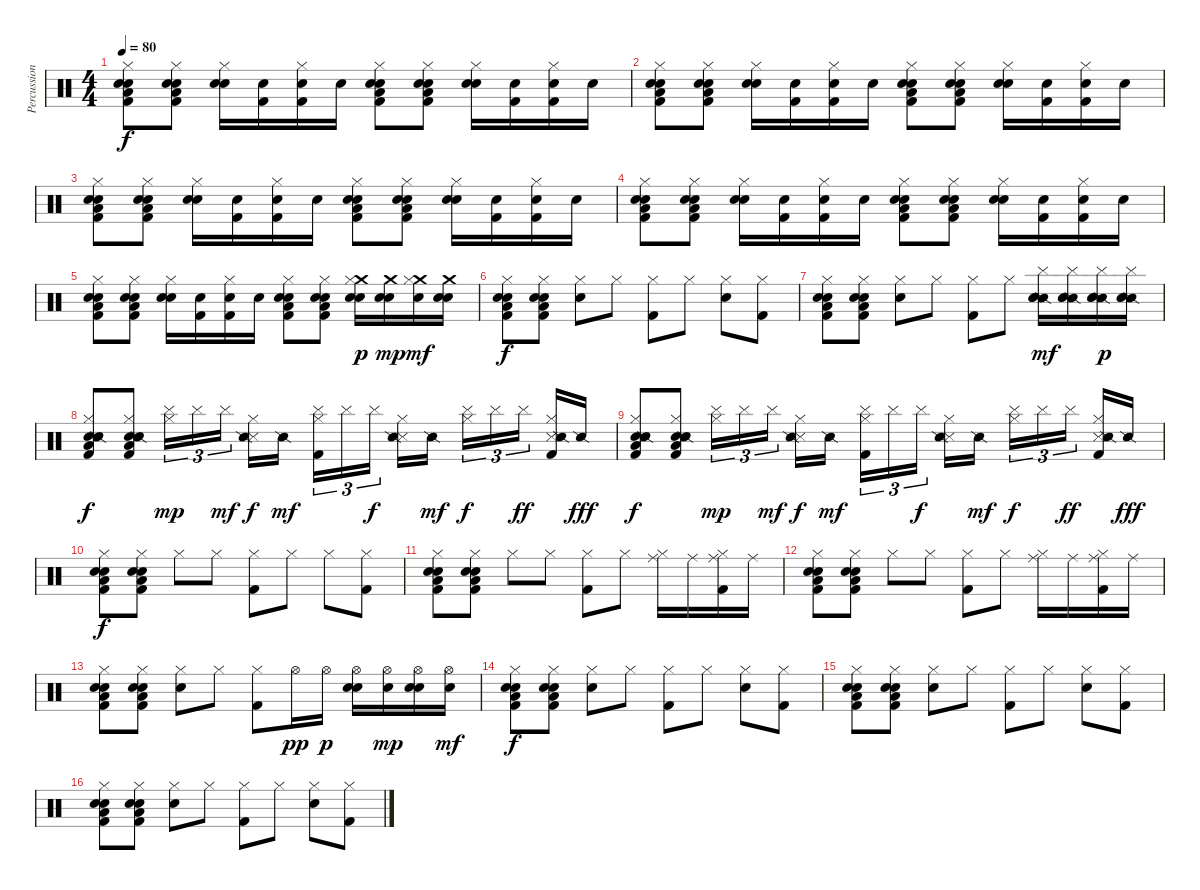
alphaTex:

\track ("Percussion" "Percussion") {instrument percussion}
\staff {score}
\articulation defaults
\ts (4 4)
\tempo 80
\clef neutral
\ks c
("Kick (hit) 2" "Low Floor Tom (hit)" "Electric Snare (hit)" "Hand Clap (hit)" "Hi-Hat (closed)").8{dy f} ("Kick (hit) 2" "Low Floor Tom (hit)" "Electric Snare (hit)" "Hand Clap (hit)" "Hi-Hat (closed)").8 ("Hand Clap (hit)" "Snare (hit) 2" "Hi-Hat (closed)").16 ("Kick (hit) 2" "Hand Clap (hit)").16 ("Kick (hit) 2" "Electric Snare (hit)" "Hi-Hat (closed)").16 "Snare (hit) 2".16 ("Kick (hit) 2" "Low Floor Tom (hit)" "Electric Snare (hit)" "Hand Clap (hit)" "Hi-Hat (closed)").8 ("Kick (hit) 2" "Low Floor Tom (hit)" "Electric Snare (hit)" "Hand Clap (hit)" "Hi-Hat (closed)").8 ("Hand Clap (hit)" "Snare (hit) 2" "Hi-Hat (closed)").16 ("Kick (hit) 2" "Hand Clap (hit)").16 ("Kick (hit) 2" "Electric Snare (hit)" "Hi-Hat (closed)").16 "Snare (hit) 2".16 |
("Kick (hit) 2" "Low Floor Tom (hit)" "Electric Snare (hit)" "Hand Clap (hit)" "Hi-Hat (closed)").8 ("Kick (hit) 2" "Low Floor Tom (hit)" "Electric Snare (hit)" "Hand Clap (hit)" "Hi-Hat (closed)").8 ("Hand Clap (hit)" "Snare (hit) 2" "Hi-Hat (closed)").16 ("Kick (hit) 2" "Hand Clap (hit)").16 ("Kick (hit) 2" "Electric Snare (hit)" "Hi-Hat (closed)").16 "Snare (hit) 2".16 ("Kick (hit) 2" "Low Floor Tom (hit)" "Electric Snare (hit)" "Hand Clap (hit)" "Hi-Hat (closed)").8 ("Kick (hit) 2" "Low Floor Tom (hit)" "Electric Snare (hit)" "Hand Clap (hit)" "Hi-Hat (closed)").8 ("Hand Clap (hit)" "Snare (hit) 2" "Hi-Hat (closed)").16 ("Kick (hit) 2" "Hand Clap (hit)").16 ("Kick (hit) 2" "Electric Snare (hit)" "Hi-Hat (closed)").16 "Snare (hit) 2".16 |
("Kick (hit) 2" "Low Floor Tom (hit)" "Electric Snare (hit)" "Hand Clap (hit)" "Hi-Hat (closed)").8 ("Kick (hit) 2" "Low Floor Tom (hit)" "Electric Snare (hit)" "Hand Clap (hit)" "Hi-Hat (closed)").8 ("Hand Clap (hit)" "Snare (hit) 2" "Hi-Hat (closed)").16 ("Kick (hit) 2" "Hand Clap (hit)").16 ("Kick (hit) 2" "Electric Snare (hit)" "Hi-Hat (closed)").16 "Snare (hit) 2".16 ("Kick (hit) 2" "Low Floor Tom (hit)" "Electric Snare (hit)" "Hand Clap (hit)" "Hi-Hat (closed)").8 ("Kick (hit) 2" "Low Floor Tom (hit)" "Electric Snare (hit)" "Hand Clap (hit)" "Hi-Hat (closed)").8 ("Hand Clap (hit)" "Snare (hit) 2" "Hi-Hat (closed)").16 ("Kick (hit) 2" "Hand Clap (hit)").16 ("Kick (hit) 2" "Electric Snare (hit)" "Hi-Hat (closed)").16 "Snare (hit) 2".16 |
("Kick (hit) 2" "Low Floor Tom (hit)" "Electric Snare (hit)" "Hand Clap (hit)" "Hi-Hat (closed)").8 ("Kick (hit) 2" "Low Floor Tom (hit)" "Electric Snare (hit)" "Hand Clap (hit)" "Hi-Hat (closed)").8 ("Hand Clap (hit)" "Snare (hit) 2" "Hi-Hat (closed)").16 ("Kick (hit) 2" "Hand Clap (hit)").16 ("Kick (hit) 2" "Electric Snare (hit)" "Hi-Hat (closed)").16 "Snare (hit) 2".16 ("Kick (hit) 2" "Low Floor Tom (hit)" "Electric Snare (hit)" "Hand Clap (hit)" "Hi-Hat (closed)").8 ("Kick (hit) 2" "Low Floor Tom (hit)" "Electric Snare (hit)" "Hand Clap (hit)" "Hi-Hat (closed)").8 ("Hand Clap (hit)" "Snare (hit) 2" "Hi-Hat (closed)").16 ("Kick (hit) 2" "Hand Clap (hit)").16 ("Kick (hit) 2" "Electric Snare (hit)" "Hi-Hat (closed)").16 "Snare (hit) 2".16 |
("Kick (hit) 2" "Low Floor Tom (hit)" "Electric Snare (hit)" "Hand Clap (hit)" "Hi-Hat (closed)").8 ("Kick (hit) 2" "Low Floor Tom (hit)" "Electric Snare (hit)" "Hand Clap (hit)" "Hi-Hat (closed)").8 ("Hand Clap (hit)" "Snare (hit) 2" "Hi-Hat (closed)").16 ("Kick (hit) 2" "Hand Clap (hit)").16 ("Kick (hit) 2" "Electric Snare (hit)" "Hi-Hat (closed)").16 "Snare (hit) 2".16 ("Kick (hit) 2" "Low Floor Tom (hit)" "Electric Snare (hit)" "Hand Clap (hit)" "Hi-Hat (closed)").8 ("Kick (hit) 2" "Low Floor Tom (hit)" "Electric Snare (hit)" "Hand Clap (hit)" "Hi-Hat (closed)").8 ("Hand Clap (hit)" "Snare (hit) 2" "Crash medium (hit)" "Hi-Hat (closed)").16{dy p} ("Hand Clap (hit)" "Electric Snare (hit)" "Crash medium (hit)").16{dy mp} ("Snare (hit) 2" "Crash medium (hit)" "Hi-Hat (closed)").16{dy mf} ("Snare (hit) 2" "Electric Snare (hit)" "Crash medium (hit)").16 |
("Kick (hit) 2" "Low Floor Tom (hit)" "Electric Snare (hit)" "Hand Clap (hit)" "Hi-Hat (closed)").8{dy f} ("Kick (hit) 2" "Low Floor Tom (hit)" "Electric Snare (hit)" "Hand Clap (hit)" "Hi-Hat (closed)").8 ("Hand Clap (hit)" "Hi-Hat (closed)").8 "Hi-Hat (closed)".8 ("Kick (hit) 2" "Hi-Hat (closed)").8 "Hi-Hat (closed)".8 ("Hand Clap (hit)" "Hi-Hat (closed)").8 ("Kick (hit) 2" "Hi-Hat (closed)").8 |
("Kick (hit) 2" "Low Floor Tom (hit)" "Electric Snare (hit)" "Hand Clap (hit)" "Hi-Hat (closed)").8 ("Kick (hit) 2" "Low Floor Tom (hit)" "Electric Snare (hit)" "Hand Clap (hit)" "Hi-Hat (closed)").8 ("Hand Clap (hit)" "Hi-Hat (closed)").8 "Hi-Hat (closed)".8 ("Kick (hit) 2" "Hi-Hat (closed)").8 "Hi-Hat (closed)".8 ("Snare (side stick) 2" "Cymbal (hit)" "Electric Snare (hit)" "Hand Clap (hit)").16{dy mf} ("Snare (side stick) 2" "Cymbal (hit)" "Electric Snare (hit)" "Hand Clap (hit)").16 ("Snare (side stick) 2" "Cymbal (hit)" "Electric Snare (hit)" "Hand Clap (hit)").16{dy p} ("Snare (side stick) 2" "Cymbal (hit)" "Electric Snare (hit)" "Hand Clap (hit)").16 |
("Kick (hit) 2" "Low Floor Tom (hit)" "Electric Snare (hit)" "Hand Clap (hit)" "Hi-Hat (closed)" "Snare (side stick) 2").8{dy f} ("Kick (hit) 2" "Low Floor Tom (hit)" "Electric Snare (hit)" "Hand Clap (hit)" "Hi-Hat (closed)" "Snare (side stick) 2").8 ("Hi-Hat (closed)" "Cymbal (hit)").16{tu (3 2) dy mp} "Cymbal (hit)".16{tu (3 2)} "Cymbal (hit)".16{tu (3 2) dy mf} ("Metronome (hit)" "Hi-Hat (closed)" "Snare (side stick) 2").16{dy f} "Snare (side stick) 2".16{dy mf} ("Kick (hit) 2" "Hi-Hat (closed)" "Cymbal (hit)").16{tu (3 2)} "Cymbal (hit)".16{tu (3 2)} "Cymbal (hit)".16{tu (3 2) dy f} ("Metronome (hit)" "Hi-Hat (closed)" "Snare (side stick) 2").16 "Snare (side stick) 2".16{dy mf} ("Hi-Hat (closed)" "Cymbal (hit)").16{tu (3 2) dy f} "Cymbal (hit)".16{tu (3 2)} "Cymbal (hit)".16{tu (3 2) dy ff} ("Kick (hit) 2" "Metronome (hit)" "Hi-Hat (closed)" "Snare (side stick) 2").16 "Snare (side stick) 2".16{dy fff} |
("Kick (hit) 2" "Low Floor Tom (hit)" "Electric Snare (hit)" "Hand Clap (hit)" "Hi-Hat (closed)" "Snare (side stick) 2").8{dy f} ("Kick (hit) 2" "Low Floor Tom (hit)" "Electric Snare (hit)" "Hand Clap (hit)" "Hi-Hat (closed)" "Snare (side stick) 2").8 ("Hi-Hat (closed)" "Cymbal (hit)").16{tu (3 2) dy mp} "Cymbal (hit)".16{tu (3 2)} "Cymbal (hit)".16{tu (3 2) dy mf} ("Metronome (hit)" "Hi-Hat (closed)" "Snare (side stick) 2").16{dy f} "Snare (side stick) 2".16{dy mf} ("Kick (hit) 2" "Hi-Hat (closed)" "Cymbal (hit)").16{tu (3 2)} "Cymbal (hit)".16{tu (3 2)} "Cymbal (hit)".16{tu (3 2) dy f} ("Metronome (hit)" "Hi-Hat (closed)" "Snare (side stick) 2").16 "Snare (side stick) 2".16{dy mf} ("Hi-Hat (closed)" "Cymbal (hit)").16{tu (3 2) dy f} "Cymbal (hit)".16{tu (3 2)} "Cymbal (hit)".16{tu (3 2) dy ff} ("Kick (hit) 2" "Metronome (hit)" "Hi-Hat (closed)" "Snare (side stick) 2").16 "Snare (side stick) 2".16{dy fff} |
("Kick (hit) 2" "Low Floor Tom (hit)" "Electric Snare (hit)" "Hand Clap (hit)" "Hi-Hat (closed)").8{dy f} ("Kick (hit) 2" "Low Floor Tom (hit)" "Electric Snare (hit)" "Hand Clap (hit)" "Hi-Hat (closed)").8 "Hi-Hat (closed)".8 "Hi-Hat (closed)".8 ("Kick (hit) 2" "Hi-Hat (closed)").8 "Hi-Hat (closed)".8 "Hi-Hat (closed)".8 ("Kick (hit) 2" "Hi-Hat (closed)").8 |
("Kick (hit) 2" "Low Floor Tom (hit)" "Electric Snare (hit)" "Hand Clap (hit)" "Hi-Hat (closed)").8 ("Kick (hit) 2" "Low Floor Tom (hit)" "Electric Snare (hit)" "Hand Clap (hit)" "Hi-Hat (closed)").8 "Hi-Hat (closed)".8 "Hi-Hat (closed)".8 ("Kick (hit) 2" "Hi-Hat (closed)").8 "Hi-Hat (closed)".8 ("Ride (middle)" "Hi-Hat (closed)").16 "Ride (middle)".16 ("Kick (hit) 2" "Ride (middle)" "Hi-Hat (closed)").16 "Ride (middle)".16 |
("Kick (hit) 2" "Low Floor Tom (hit)" "Electric Snare (hit)" "Hand Clap (hit)" "Hi-Hat (closed)").8 ("Kick (hit) 2" "Low Floor Tom (hit)" "Electric Snare (hit)" "Hand Clap (hit)" "Hi-Hat (closed)").8 "Hi-Hat (closed)".8 "Hi-Hat (closed)".8 ("Kick (hit) 2" "Hi-Hat (closed)").8 "Hi-Hat (closed)".8 ("Ride (middle)" "Hi-Hat (closed)").16 "Ride (middle)".16 ("Kick (hit) 2" "Ride (middle)" "Hi-Hat (closed)").16 "Ride (middle)".16 |
("Kick (hit) 2" "Low Floor Tom (hit)" "Electric Snare (hit)" "Hand Clap (hit)" "Hi-Hat (closed)").8 ("Kick (hit) 2" "Low Floor Tom (hit)" "Electric Snare (hit)" "Hand Clap (hit)" "Hi-Hat (closed)").8 ("Hand Clap (hit)" "Hi-Hat (closed)").8 "Hi-Hat (closed)".8 ("Kick (hit) 2" "Hi-Hat (closed)").8 "Hi-Hat (open)".16{dy pp} "Hi-Hat (open)".16{dy p} ("Hand Clap (hit)" "Electric Snare (hit)" "Hi-Hat (open)").16 ("Electric Snare (hit)" "Hi-Hat (open)").16{dy mp} ("Hand Clap (hit)" "Electric Snare (hit)" "Hi-Hat (open)").16 ("Electric Snare (hit)" "Hi-Hat (open)").16{dy mf} |
("Kick (hit) 2" "Low Floor Tom (hit)" "Electric Snare (hit)" "Hand Clap (hit)" "Hi-Hat (closed)").8{dy f} ("Kick (hit) 2" "Low Floor Tom (hit)" "Electric Snare (hit)" "Hand Clap (hit)" "Hi-Hat (closed)").8 ("Hand Clap (hit)" "Hi-Hat (closed)").8 "Hi-Hat (closed)".8 ("Kick (hit) 2" "Hi-Hat (closed)").8 "Hi-Hat (closed)".8 ("Hand Clap (hit)" "Hi-Hat (closed)").8 ("Kick (hit) 2" "Hi-Hat (closed)").8 |
("Kick (hit) 2" "Low Floor Tom (hit)" "Electric Snare (hit)" "Hand Clap (hit)" "Hi-Hat (closed)").8 ("Kick (hit) 2" "Low Floor Tom (hit)" "Electric Snare (hit)" "Hand Clap (hit)" "Hi-Hat (closed)").8 ("Hand Clap (hit)" "Hi-Hat (closed)").8 "Hi-Hat (closed)".8 ("Kick (hit) 2" "Hi-Hat (closed)").8 "Hi-Hat (closed)".8 ("Hand Clap (hit)" "Hi-Hat (closed)").8 ("Kick (hit) 2" "Hi-Hat (closed)").8 |
("Kick (hit) 2" "Low Floor Tom (hit)" "Electric Snare (hit)" "Hand Clap (hit)" "Hi-Hat (closed)").8 ("Kick (hit) 2" "Low Floor Tom (hit)" "Electric Snare (hit)" "Hand Clap (hit)" "Hi-Hat (closed)").8 ("Hand Clap (hit)" "Hi-Hat (closed)").8 "Hi-Hat (closed)".8 ("Kick (hit) 2" "Hi-Hat (closed)").8 "Hi-Hat (closed)".8 ("Hand Clap (hit)" "Hi-Hat (closed)").8 ("Kick (hit) 2" "Hi-Hat (closed)").8
